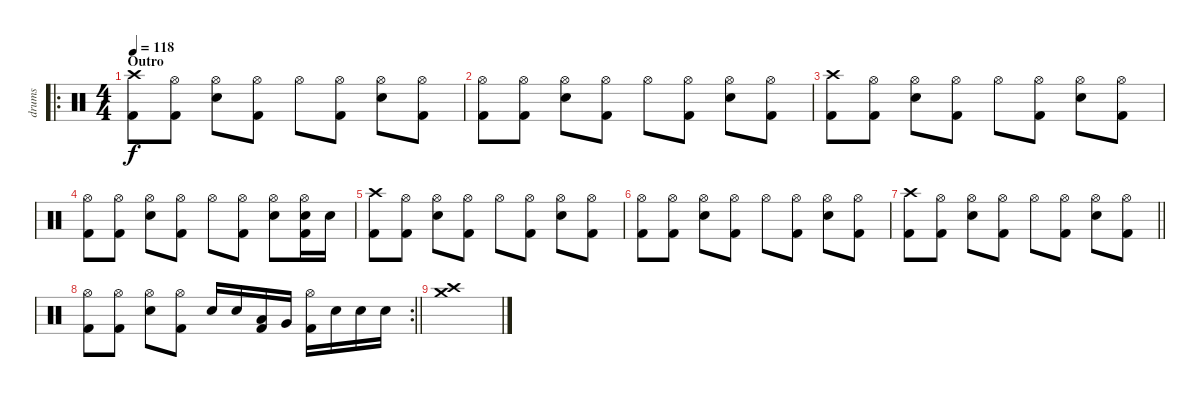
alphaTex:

\track ("drums" "drums") {instrument percussion}
\staff {score}
\articulation defaults
\ro
\ts (4 4)
\section ("" "Outro")
\tempo 118
\clef neutral
\ks c
("Crash high (hit)" "Kick (hit) 2").8{dy f} ("Hi-Hat (open)" "Kick (hit) 2").8 ("Hi-Hat (open)" "Electric Snare (hit)").8 ("Hi-Hat (open)" "Kick (hit) 2").8 "Hi-Hat (open)".8 ("Hi-Hat (open)" "Kick (hit) 2").8 ("Hi-Hat (open)" "Electric Snare (hit)").8 ("Hi-Hat (open)" "Kick (hit) 2").8 |
("Hi-Hat (open)" "Kick (hit) 2").8 ("Hi-Hat (open)" "Kick (hit) 2").8 ("Hi-Hat (open)" "Electric Snare (hit)").8 ("Hi-Hat (open)" "Kick (hit) 2").8 "Hi-Hat (open)".8 ("Hi-Hat (open)" "Kick (hit) 2").8 ("Hi-Hat (open)" "Electric Snare (hit)").8 ("Hi-Hat (open)" "Kick (hit) 2").8 |
("Crash high (hit)" "Kick (hit) 2").8 ("Hi-Hat (open)" "Kick (hit) 2").8 ("Hi-Hat (open)" "Electric Snare (hit)").8 ("Hi-Hat (open)" "Kick (hit) 2").8 "Hi-Hat (open)".8 ("Hi-Hat (open)" "Kick (hit) 2").8 ("Hi-Hat (open)" "Electric Snare (hit)").8 ("Hi-Hat (open)" "Kick (hit) 2").8 |
("Hi-Hat (open)" "Kick (hit) 2").8 ("Hi-Hat (open)" "Kick (hit) 2").8 ("Hi-Hat (open)" "Electric Snare (hit)").8 ("Hi-Hat (open)" "Kick (hit) 2").8 "Hi-Hat (open)".8 ("Hi-Hat (open)" "Kick (hit) 2").8 ("Hi-Hat (open)" "Electric Snare (hit)").8 ("Hi-Hat (open)" "Electric Snare (hit)" "Kick (hit) 2").16 "Electric Snare (hit)".16 |
("Crash high (hit)" "Kick (hit) 2").8 ("Hi-Hat (open)" "Kick (hit) 2").8 ("Hi-Hat (open)" "Electric Snare (hit)").8 ("Hi-Hat (open)" "Kick (hit) 2").8 "Hi-Hat (open)".8 ("Hi-Hat (open)" "Kick (hit) 2").8 ("Hi-Hat (open)" "Electric Snare (hit)").8 ("Hi-Hat (open)" "Kick (hit) 2").8 |
("Hi-Hat (open)" "Kick (hit) 2").8 ("Hi-Hat (open)" "Kick (hit) 2").8 ("Hi-Hat (open)" "Electric Snare (hit)").8 ("Hi-Hat (open)" "Kick (hit) 2").8 "Hi-Hat (open)".8 ("Hi-Hat (open)" "Kick (hit) 2").8 ("Hi-Hat (open)" "Electric Snare (hit)").8 ("Hi-Hat (open)" "Kick (hit) 2").8 |
\barLineRight lightlight
("Crash high (hit)" "Kick (hit) 2").8 ("Hi-Hat (open)" "Kick (hit) 2").8 ("Hi-Hat (open)" "Electric Snare (hit)").8 ("Hi-Hat (open)" "Kick (hit) 2").8 "Hi-Hat (open)".8 ("Hi-Hat (open)" "Kick (hit) 2").8 ("Hi-Hat (open)" "Electric Snare (hit)").8 ("Hi-Hat (open)" "Kick (hit) 2").8 |
\rc 2
\barLineRight lightlight
("Hi-Hat (open)" "Kick (hit) 2").8 ("Hi-Hat (open)" "Kick (hit) 2").8 ("Hi-Hat (open)" "Electric Snare (hit)").8 ("Hi-Hat (open)" "Kick (hit) 2").8 "Electric Snare (hit)".16 "Electric Snare (hit)".16 ("Low Tom (hit)" "Kick (hit) 2").16 "Very Low Tom (hit)".16 ("Hi-Hat (open)" "Kick (hit) 2").16 "Electric Snare (hit)".16 "Electric Snare (hit)".16 "Electric Snare (hit)".16 |
("Crash medium (hit)" "Crash high (hit)").1
